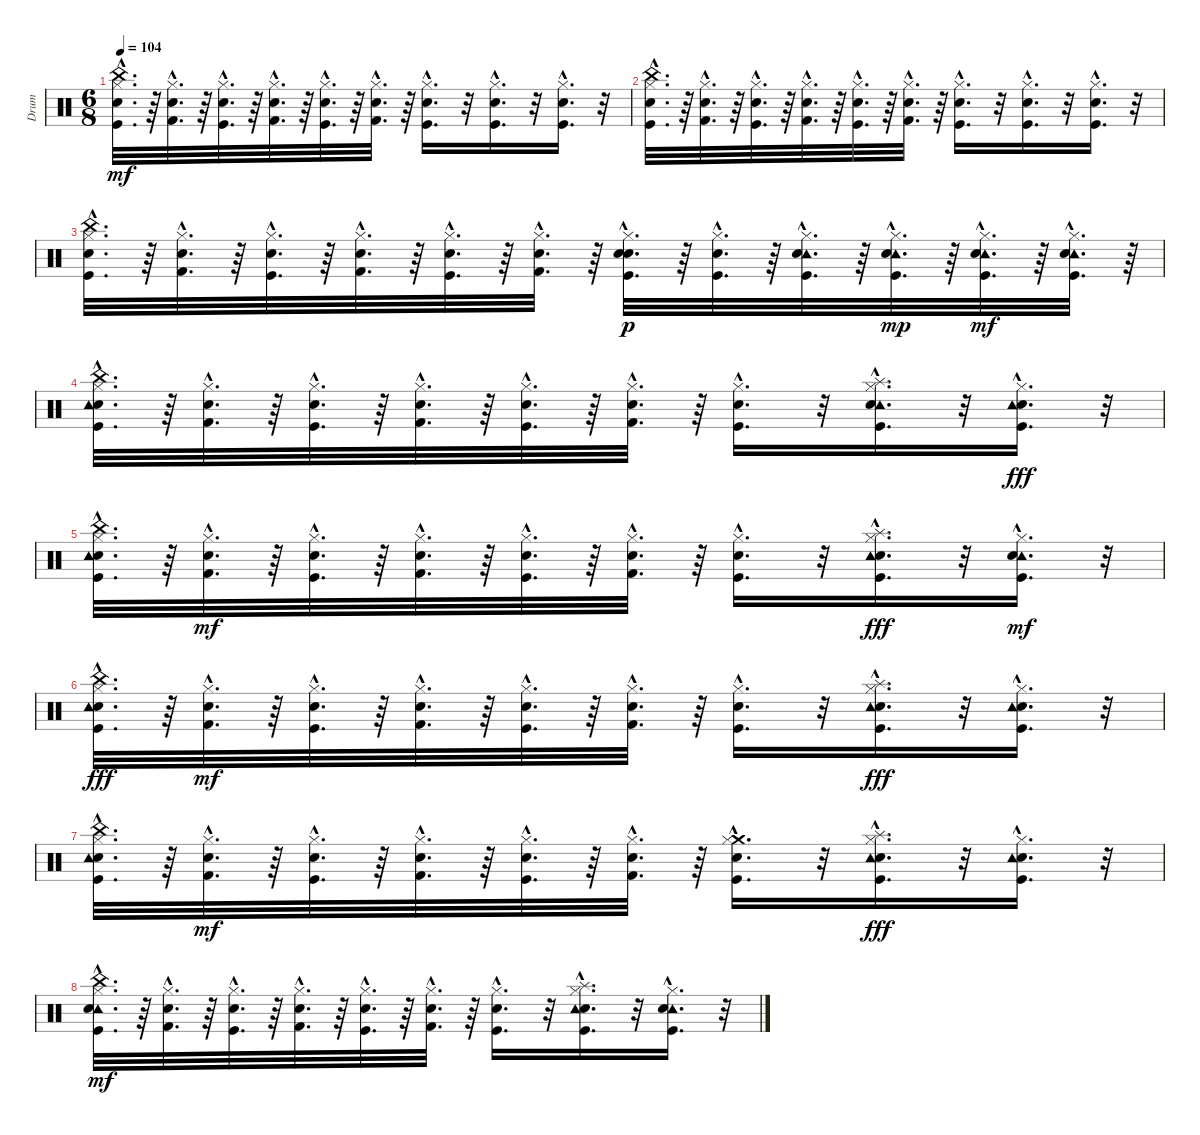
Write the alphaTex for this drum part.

\track ("Drum" "Drum") {instrument percussion}
\staff {score}
\articulation defaults
\ts (6 8)
\tempo 104
\clef neutral
\ks c
("China (hit)"{hac} "Hi-Hat (closed)"{hac} "Kick (hit)"{hac} "Snare (hit) 2"{hac}).32{d dy mf} r.64 ("Hi-Hat (closed)"{hac} "Kick (hit) 2"{hac} "Electric Snare (hit)"{hac}).32{d} r.64 ("Hi-Hat (closed)"{hac} "Kick (hit)"{hac} "Snare (hit) 2"{hac}).32{d} r.64 ("Hi-Hat (closed)"{hac} "Kick (hit) 2"{hac} "Electric Snare (hit)"{hac}).32{d} r.64 ("Hi-Hat (closed)"{hac} "Kick (hit)"{hac} "Snare (hit) 2"{hac}).32{d} r.64 ("Hi-Hat (closed)"{hac} "Kick (hit) 2"{hac} "Electric Snare (hit)"{hac}).32{d} r.64 ("Hi-Hat (closed)"{hac} "Kick (hit)"{hac} "Snare (hit) 2"{hac}).16{d} r.32 ("Hi-Hat (closed)"{hac} "Kick (hit)"{hac} "Snare (hit) 2"{hac}).16{d} r.32 ("Hi-Hat (closed)"{hac} "Kick (hit)"{hac} "Snare (hit) 2"{hac}).16{d} r.32 |
("Snare (hit) 2"{hac} "Kick (hit)"{hac} "Hi-Hat (closed)"{hac} "China (hit)"{hac}).32{d} r.64 ("Electric Snare (hit)"{hac} "Kick (hit) 2"{hac} "Hi-Hat (closed)"{hac}).32{d} r.64 ("Snare (hit) 2"{hac} "Kick (hit)"{hac} "Hi-Hat (closed)"{hac}).32{d} r.64 ("Electric Snare (hit)"{hac} "Kick (hit) 2"{hac} "Hi-Hat (closed)"{hac}).32{d} r.64 ("Snare (hit) 2"{hac} "Kick (hit)"{hac} "Hi-Hat (closed)"{hac}).32{d} r.64 ("Electric Snare (hit)"{hac} "Kick (hit) 2"{hac} "Hi-Hat (closed)"{hac}).32{d} r.64 ("Snare (hit) 2"{hac} "Kick (hit)"{hac} "Hi-Hat (closed)"{hac}).16{d} r.32 ("Snare (hit) 2"{hac} "Kick (hit)"{hac} "Hi-Hat (closed)"{hac}).16{d} r.32 ("Snare (hit) 2"{hac} "Kick (hit)"{hac} "Hi-Hat (closed)"{hac}).16{d} r.32 |
("Snare (hit) 2"{hac} "Kick (hit)"{hac} "Hi-Hat (closed)"{hac} "China (hit)"{hac}).32{d} r.64 ("Electric Snare (hit)"{hac} "Kick (hit) 2"{hac} "Hi-Hat (closed)"{hac}).32{d} r.64 ("Snare (hit) 2"{hac} "Kick (hit)"{hac} "Hi-Hat (closed)"{hac}).32{d} r.64 ("Electric Snare (hit)"{hac} "Kick (hit) 2"{hac} "Hi-Hat (closed)"{hac}).32{d} r.64 ("Snare (hit) 2"{hac} "Kick (hit)"{hac} "Hi-Hat (closed)"{hac}).32{d} r.64 ("Electric Snare (hit)"{hac} "Kick (hit) 2"{hac} "Hi-Hat (closed)"{hac}).32{d} r.64 ("Electric Snare (hit)"{hac} "Hi-Hat (closed)"{hac} "Kick (hit)"{hac} "Snare (hit) 2"{hac}).32{d dy p} r.64 ("Hi-Hat (closed)"{hac} "Kick (hit)"{hac} "Electric Snare (hit)"{hac}).32{d} r.64 ("Tambourine (hit)"{hac} "Hi-Hat (closed)"{hac} "Kick (hit)"{hac} "Snare (hit) 2"{hac}).32{d} r.64 ("Tambourine (hit)"{hac} "Hi-Hat (closed)"{hac} "Kick (hit)"{hac} "Electric Snare (hit)"{hac}).32{d dy mp} r.64 ("Tambourine (hit)"{hac} "Hi-Hat (closed)"{hac} "Kick (hit)"{hac} "Snare (hit) 2"{hac}).32{d dy mf} r.64 ("Tambourine (hit)"{hac} "Hi-Hat (closed)"{hac} "Kick (hit)"{hac} "Electric Snare (hit)"{hac}).32{d} r.64 |
("China (hit)"{hac} "Snare (hit) 2"{hac} "Tambourine (hit)"{hac} "Kick (hit)"{hac} "Hi-Hat (closed)"{hac}).32{d} r.64 ("Electric Snare (hit)"{hac} "Kick (hit) 2"{hac} "Hi-Hat (closed)"{hac}).32{d} r.64 ("Hi-Hat (closed)"{hac} "Kick (hit)"{hac} "Snare (hit) 2"{hac}).32{d} r.64 ("Kick (hit) 2"{hac} "Electric Snare (hit)"{hac} "Hi-Hat (closed)"{hac}).32{d} r.64 ("Kick (hit)"{hac} "Snare (hit) 2"{hac} "Hi-Hat (closed)"{hac}).32{d} r.64 ("Hi-Hat (closed)"{hac} "Electric Snare (hit)"{hac} "Kick (hit) 2"{hac}).32{d} r.64 ("Hi-Hat (closed)"{hac} "Snare (hit) 2"{hac} "Kick (hit)"{hac}).16{d} r.32 ("Splash (hit)"{hac} "Tambourine (hit)"{hac} "Hi-Hat (closed)"{hac} "Snare (hit) 2"{hac} "Kick (hit)"{hac}).16{d} r.32 ("Hi-Hat (closed)"{hac} "Snare (hit) 2"{hac} "Kick (hit)"{hac} "Tambourine (hit)"{hac}).16{d dy fff} r.32 |
("Kick (hit)"{hac} "Snare (hit) 2"{hac} "Hi-Hat (closed)"{hac} "China (hit)"{hac} "Tambourine (hit)"{hac}).32{d} r.64 ("Electric Snare (hit)"{hac} "Kick (hit) 2"{hac} "Hi-Hat (closed)"{hac}).32{d dy mf} r.64 ("Snare (hit) 2"{hac} "Kick (hit)"{hac} "Hi-Hat (closed)"{hac}).32{d} r.64 ("Hi-Hat (closed)"{hac} "Electric Snare (hit)"{hac} "Kick (hit) 2"{hac}).32{d} r.64 ("Snare (hit) 2"{hac} "Hi-Hat (closed)"{hac} "Kick (hit)"{hac}).32{d} r.64 ("Kick (hit) 2"{hac} "Hi-Hat (closed)"{hac} "Electric Snare (hit)"{hac}).32{d} r.64 ("Snare (hit) 2"{hac} "Kick (hit)"{hac} "Hi-Hat (closed)"{hac}).16{d} r.32 ("Hi-Hat (closed)"{hac} "Splash (hit)"{hac} "Kick (hit)"{hac} "Snare (hit) 2"{hac} "Tambourine (hit)"{hac}).16{d dy fff} r.32 ("Tambourine (hit)"{hac} "Snare (hit) 2"{hac} "Kick (hit)"{hac} "Hi-Hat (closed)"{hac}).16{d dy mf} r.32 |
("China (hit)"{hac} "Hi-Hat (closed)"{hac} "Kick (hit)"{hac} "Snare (hit) 2"{hac} "Tambourine (hit)"{hac}).32{d dy fff} r.64 ("Hi-Hat (closed)"{hac} "Kick (hit) 2"{hac} "Electric Snare (hit)"{hac}).32{d dy mf} r.64 ("Hi-Hat (closed)"{hac} "Kick (hit)"{hac} "Snare (hit) 2"{hac}).32{d} r.64 ("Hi-Hat (closed)"{hac} "Kick (hit) 2"{hac} "Electric Snare (hit)"{hac}).32{d} r.64 ("Hi-Hat (closed)"{hac} "Kick (hit)"{hac} "Snare (hit) 2"{hac}).32{d} r.64 ("Hi-Hat (closed)"{hac} "Kick (hit) 2"{hac} "Electric Snare (hit)"{hac}).32{d} r.64 ("Hi-Hat (closed)"{hac} "Kick (hit)"{hac} "Snare (hit) 2"{hac}).16{d} r.32 ("Hi-Hat (closed)"{hac} "Kick (hit)"{hac} "Splash (hit)"{hac} "Snare (hit) 2"{hac} "Tambourine (hit)"{hac}).16{d dy fff} r.32 ("Hi-Hat (closed)"{hac} "Kick (hit)"{hac} "Snare (hit) 2"{hac} "Tambourine (hit)"{hac}).16{d} r.32 |
("China (hit)"{hac} "Hi-Hat (closed)"{hac} "Kick (hit)"{hac} "Snare (hit) 2"{hac} "Tambourine (hit)"{hac}).32{d} r.64 ("Hi-Hat (closed)"{hac} "Kick (hit) 2"{hac} "Electric Snare (hit)"{hac}).32{d dy mf} r.64 ("Hi-Hat (closed)"{hac} "Kick (hit)"{hac} "Snare (hit) 2"{hac}).32{d} r.64 ("Hi-Hat (closed)"{hac} "Kick (hit) 2"{hac} "Electric Snare (hit)"{hac}).32{d} r.64 ("Hi-Hat (closed)"{hac} "Kick (hit)"{hac} "Snare (hit) 2"{hac}).32{d} r.64 ("Hi-Hat (closed)"{hac} "Kick (hit) 2"{hac} "Electric Snare (hit)"{hac}).32{d} r.64 ("Crash medium (hit)"{hac} "Hi-Hat (closed)"{hac} "Kick (hit)"{hac} "Snare (hit) 2"{hac}).16{d} r.32 ("Hi-Hat (closed)"{hac} "Kick (hit)"{hac} "Splash (hit)"{hac} "Snare (hit) 2"{hac} "Tambourine (hit)"{hac}).16{d dy fff} r.32 ("Hi-Hat (closed)"{hac} "Kick (hit)"{hac} "Snare (hit) 2"{hac} "Tambourine (hit)"{hac}).16{d} r.32 |
("Hi-Hat (closed)"{hac} "Kick (hit)"{hac} "Tambourine (hit)"{hac} "Snare (hit) 2"{hac} "China (hit)"{hac}).32{d dy mf} r.64 ("Hi-Hat (closed)"{hac} "Kick (hit) 2"{hac} "Electric Snare (hit)"{hac}).32{d} r.64 ("Snare (hit) 2"{hac} "Kick (hit)"{hac} "Hi-Hat (closed)"{hac}).32{d} r.64 ("Hi-Hat (closed)"{hac} "Electric Snare (hit)"{hac} "Kick (hit) 2"{hac}).32{d} r.64 ("Hi-Hat (closed)"{hac} "Snare (hit) 2"{hac} "Kick (hit)"{hac}).32{d} r.64 ("Kick (hit) 2"{hac} "Electric Snare (hit)"{hac} "Hi-Hat (closed)"{hac}).32{d} r.64 ("Kick (hit)"{hac} "Snare (hit) 2"{hac} "Hi-Hat (closed)"{hac}).16{d} r.32 ("Kick (hit)"{hac} "Snare (hit) 2"{hac} "Hi-Hat (closed)"{hac} "Tambourine (hit)"{hac} "Splash (hit)"{hac}).16{d} r.32 ("Tambourine (hit)"{hac} "Kick (hit)"{hac} "Snare (hit) 2"{hac} "Hi-Hat (closed)"{hac}).16{d} r.32
